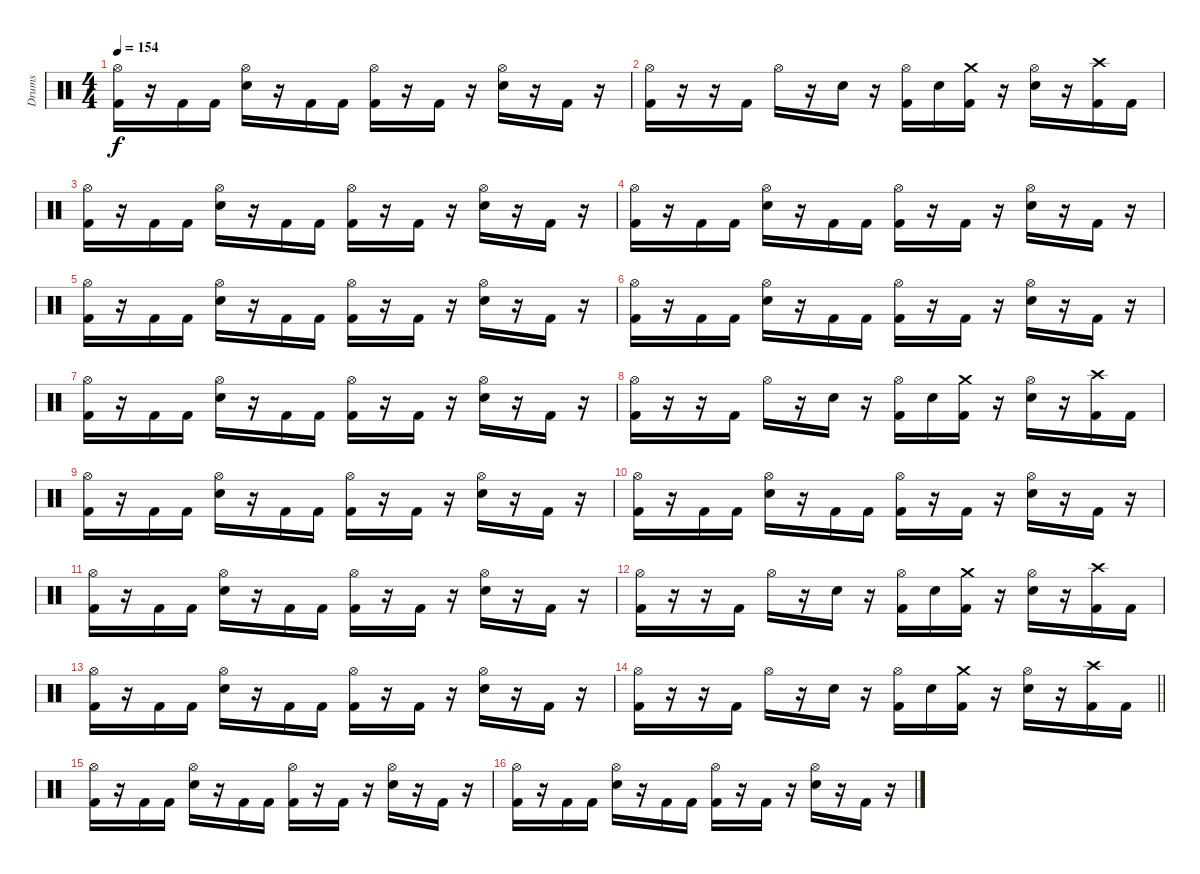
\track ("Drums" "Drums") {instrument percussion}
\staff {score}
\articulation defaults
\ts (4 4)
\tempo 154
\clef neutral
\ks c
("Hi-Hat (open)" "Kick (hit) 2").16{dy f} r.16 "Kick (hit) 2".16 "Kick (hit) 2".16 ("Hi-Hat (open)" "Snare (hit) 2").16 r.16 "Kick (hit) 2".16 "Kick (hit) 2".16 ("Hi-Hat (open)" "Kick (hit) 2").16 r.16 "Kick (hit) 2".16 r.16 ("Hi-Hat (open)" "Snare (hit) 2").16 r.16 "Kick (hit) 2".16 r.16 |
("Hi-Hat (open)" "Kick (hit) 2").16 r.16 r.16 "Kick (hit) 2".16 "Hi-Hat (open)".16 r.16 "Snare (hit) 2".16 r.16 ("Hi-Hat (open)" "Kick (hit) 2").16 "Snare (hit) 2".16 ("Crash medium (hit)" "Kick (hit) 2").16 r.16 ("Hi-Hat (open)" "Snare (hit) 2").16 r.16 ("Crash high (hit)" "Kick (hit) 2").16 "Kick (hit) 2".16 |
("Hi-Hat (open)" "Kick (hit) 2").16 r.16 "Kick (hit) 2".16 "Kick (hit) 2".16 ("Hi-Hat (open)" "Snare (hit) 2").16 r.16 "Kick (hit) 2".16 "Kick (hit) 2".16 ("Hi-Hat (open)" "Kick (hit) 2").16 r.16 "Kick (hit) 2".16 r.16 ("Hi-Hat (open)" "Snare (hit) 2").16 r.16 "Kick (hit) 2".16 r.16 |
("Hi-Hat (open)" "Kick (hit) 2").16 r.16 "Kick (hit) 2".16 "Kick (hit) 2".16 ("Hi-Hat (open)" "Snare (hit) 2").16 r.16 "Kick (hit) 2".16 "Kick (hit) 2".16 ("Hi-Hat (open)" "Kick (hit) 2").16 r.16 "Kick (hit) 2".16 r.16 ("Hi-Hat (open)" "Snare (hit) 2").16 r.16 "Kick (hit) 2".16 r.16 |
("Hi-Hat (open)" "Kick (hit) 2").16 r.16 "Kick (hit) 2".16 "Kick (hit) 2".16 ("Hi-Hat (open)" "Snare (hit) 2").16 r.16 "Kick (hit) 2".16 "Kick (hit) 2".16 ("Hi-Hat (open)" "Kick (hit) 2").16 r.16 "Kick (hit) 2".16 r.16 ("Hi-Hat (open)" "Snare (hit) 2").16 r.16 "Kick (hit) 2".16 r.16 |
("Hi-Hat (open)" "Kick (hit) 2").16 r.16 "Kick (hit) 2".16 "Kick (hit) 2".16 ("Hi-Hat (open)" "Snare (hit) 2").16 r.16 "Kick (hit) 2".16 "Kick (hit) 2".16 ("Hi-Hat (open)" "Kick (hit) 2").16 r.16 "Kick (hit) 2".16 r.16 ("Hi-Hat (open)" "Snare (hit) 2").16 r.16 "Kick (hit) 2".16 r.16 |
("Hi-Hat (open)" "Kick (hit) 2").16 r.16 "Kick (hit) 2".16 "Kick (hit) 2".16 ("Hi-Hat (open)" "Snare (hit) 2").16 r.16 "Kick (hit) 2".16 "Kick (hit) 2".16 ("Hi-Hat (open)" "Kick (hit) 2").16 r.16 "Kick (hit) 2".16 r.16 ("Hi-Hat (open)" "Snare (hit) 2").16 r.16 "Kick (hit) 2".16 r.16 |
("Hi-Hat (open)" "Kick (hit) 2").16 r.16 r.16 "Kick (hit) 2".16 "Hi-Hat (open)".16 r.16 "Snare (hit) 2".16 r.16 ("Hi-Hat (open)" "Kick (hit) 2").16 "Snare (hit) 2".16 ("Crash medium (hit)" "Kick (hit) 2").16 r.16 ("Hi-Hat (open)" "Snare (hit) 2").16 r.16 ("Crash high (hit)" "Kick (hit) 2").16 "Kick (hit) 2".16 |
("Hi-Hat (open)" "Kick (hit) 2").16 r.16 "Kick (hit) 2".16 "Kick (hit) 2".16 ("Hi-Hat (open)" "Snare (hit) 2").16 r.16 "Kick (hit) 2".16 "Kick (hit) 2".16 ("Hi-Hat (open)" "Kick (hit) 2").16 r.16 "Kick (hit) 2".16 r.16 ("Hi-Hat (open)" "Snare (hit) 2").16 r.16 "Kick (hit) 2".16 r.16 |
("Hi-Hat (open)" "Kick (hit) 2").16 r.16 "Kick (hit) 2".16 "Kick (hit) 2".16 ("Hi-Hat (open)" "Snare (hit) 2").16 r.16 "Kick (hit) 2".16 "Kick (hit) 2".16 ("Hi-Hat (open)" "Kick (hit) 2").16 r.16 "Kick (hit) 2".16 r.16 ("Hi-Hat (open)" "Snare (hit) 2").16 r.16 "Kick (hit) 2".16 r.16 |
("Hi-Hat (open)" "Kick (hit) 2").16 r.16 "Kick (hit) 2".16 "Kick (hit) 2".16 ("Hi-Hat (open)" "Snare (hit) 2").16 r.16 "Kick (hit) 2".16 "Kick (hit) 2".16 ("Hi-Hat (open)" "Kick (hit) 2").16 r.16 "Kick (hit) 2".16 r.16 ("Hi-Hat (open)" "Snare (hit) 2").16 r.16 "Kick (hit) 2".16 r.16 |
("Hi-Hat (open)" "Kick (hit) 2").16 r.16 r.16 "Kick (hit) 2".16 "Hi-Hat (open)".16 r.16 "Snare (hit) 2".16 r.16 ("Hi-Hat (open)" "Kick (hit) 2").16 "Snare (hit) 2".16 ("Crash medium (hit)" "Kick (hit) 2").16 r.16 ("Hi-Hat (open)" "Snare (hit) 2").16 r.16 ("Crash high (hit)" "Kick (hit) 2").16 "Kick (hit) 2".16 |
("Hi-Hat (open)" "Kick (hit) 2").16 r.16 "Kick (hit) 2".16 "Kick (hit) 2".16 ("Hi-Hat (open)" "Snare (hit) 2").16 r.16 "Kick (hit) 2".16 "Kick (hit) 2".16 ("Hi-Hat (open)" "Kick (hit) 2").16 r.16 "Kick (hit) 2".16 r.16 ("Hi-Hat (open)" "Snare (hit) 2").16 r.16 "Kick (hit) 2".16 r.16 |
\barLineRight lightlight
("Hi-Hat (open)" "Kick (hit) 2").16 r.16 r.16 "Kick (hit) 2".16 "Hi-Hat (open)".16 r.16 "Snare (hit) 2".16 r.16 ("Hi-Hat (open)" "Kick (hit) 2").16 "Snare (hit) 2".16 ("Crash medium (hit)" "Kick (hit) 2").16 r.16 ("Hi-Hat (open)" "Snare (hit) 2").16 r.16 ("Crash high (hit)" "Kick (hit) 2").16 "Kick (hit) 2".16 |
("Hi-Hat (open)" "Kick (hit) 2").16 r.16 "Kick (hit) 2".16 "Kick (hit) 2".16 ("Hi-Hat (open)" "Snare (hit) 2").16 r.16 "Kick (hit) 2".16 "Kick (hit) 2".16 ("Hi-Hat (open)" "Kick (hit) 2").16 r.16 "Kick (hit) 2".16 r.16 ("Hi-Hat (open)" "Snare (hit) 2").16 r.16 "Kick (hit) 2".16 r.16 |
("Hi-Hat (open)" "Kick (hit) 2").16 r.16 "Kick (hit) 2".16 "Kick (hit) 2".16 ("Hi-Hat (open)" "Snare (hit) 2").16 r.16 "Kick (hit) 2".16 "Kick (hit) 2".16 ("Hi-Hat (open)" "Kick (hit) 2").16 r.16 "Kick (hit) 2".16 r.16 ("Hi-Hat (open)" "Snare (hit) 2").16 r.16 "Kick (hit) 2".16 r.16
